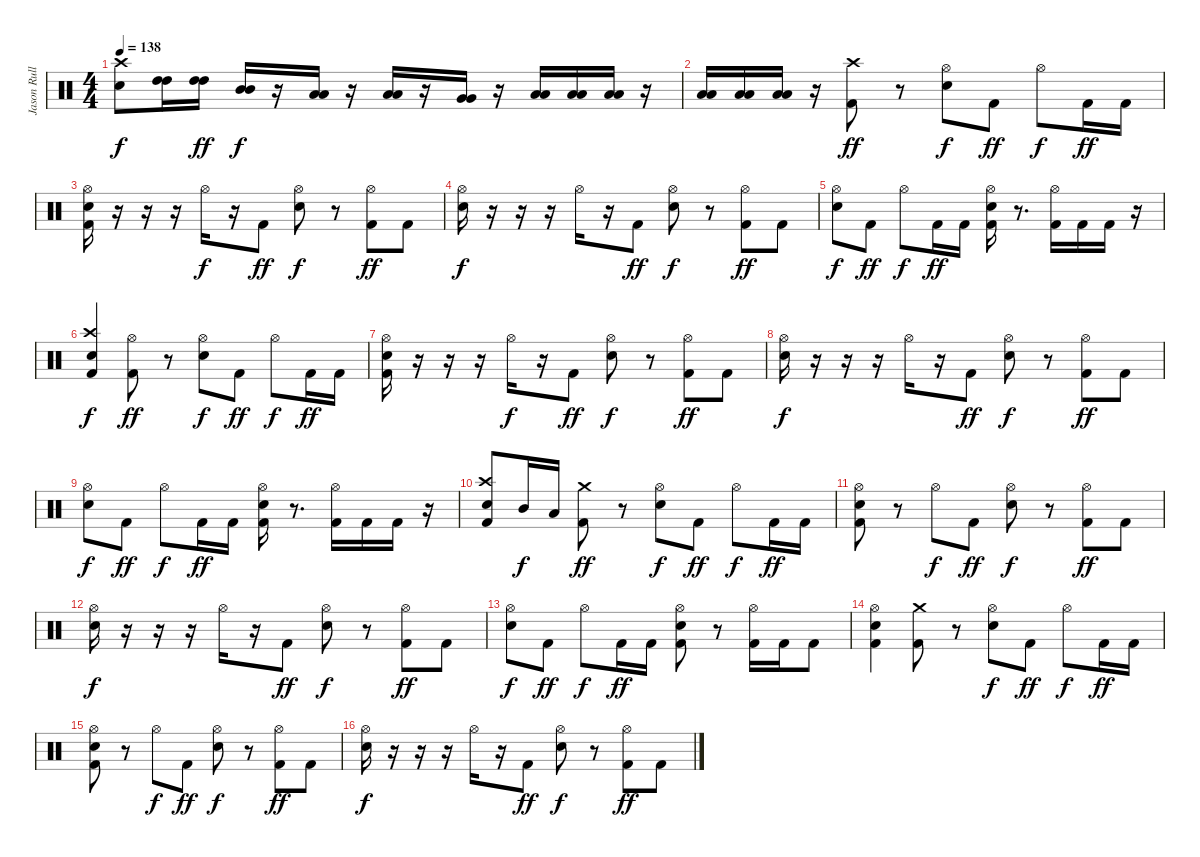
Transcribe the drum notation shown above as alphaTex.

\track ("Jason Rullo" "Jason Rull") {instrument percussion}
\staff {score}
\articulation defaults
\ts (4 4)
\tempo 138
\clef neutral
\ks c
("Electric Snare (hit)" "Crash high (hit)").8{dy f} ("High Tom (hit)" "High Tom (hit)").16 ("High Tom (hit)" "High Tom (hit)").16{dy ff} ("Mid Tom (hit)" "Mid Tom (hit)").16{dy f} r.16 ("Low Tom (hit)" "Low Tom (hit)").16 r.16 ("Low Tom (hit)" "Low Tom (hit)").16 r.16 ("Very Low Tom (hit)" "Very Low Tom (hit)").16 r.16 ("Low Tom (hit)" "Low Tom (hit)").16 ("Low Tom (hit)" "Low Tom (hit)").16 ("Low Tom (hit)" "Low Tom (hit)").16 r.16 |
("Low Tom (hit)" "Low Tom (hit)").16 ("Low Tom (hit)" "Low Tom (hit)").16 ("Low Tom (hit)" "Low Tom (hit)").16 r.16 ("Kick (hit) 2" "Crash high (hit)").8{dy ff} r.8 ("Electric Snare (hit)" "Hi-Hat (open)").8{dy f} "Kick (hit) 2".8{dy ff} "Hi-Hat (open)".8{dy f} "Kick (hit) 2".16{dy ff} "Kick (hit) 2".16 |
("Kick (hit) 2" "Electric Snare (hit)" "Hi-Hat (open)").16 r.16 r.16 r.16 "Hi-Hat (open)".16{dy f} r.16 "Kick (hit) 2".8{dy ff} ("Electric Snare (hit)" "Hi-Hat (open)").8{dy f} r.8 ("Kick (hit) 2" "Hi-Hat (open)").8{dy ff} "Kick (hit) 2".8 |
("Electric Snare (hit)" "Hi-Hat (open)").16{dy f} r.16 r.16 r.16 "Hi-Hat (open)".16 r.16 "Kick (hit) 2".8{dy ff} ("Electric Snare (hit)" "Hi-Hat (open)").8{dy f} r.8 ("Kick (hit) 2" "Hi-Hat (open)").8{dy ff} "Kick (hit) 2".8 |
("Electric Snare (hit)" "Hi-Hat (open)").8{dy f} "Kick (hit) 2".8{dy ff} "Hi-Hat (open)".8{dy f} "Kick (hit) 2".16{dy ff} "Kick (hit) 2".16 ("Kick (hit) 2" "Electric Snare (hit)" "Hi-Hat (open)").16 r.8{d} ("Kick (hit) 2" "Hi-Hat (open)").16 "Kick (hit) 2".16 "Kick (hit) 2".16 r.16 |
("Kick (hit) 2" "Electric Snare (hit)" "Crash high (hit)").4{dy f} ("Kick (hit) 2" "Hi-Hat (open)").8{dy ff} r.8 ("Electric Snare (hit)" "Hi-Hat (open)").8{dy f} "Kick (hit) 2".8{dy ff} "Hi-Hat (open)".8{dy f} "Kick (hit) 2".16{dy ff} "Kick (hit) 2".16 |
("Kick (hit) 2" "Electric Snare (hit)" "Hi-Hat (open)").16 r.16 r.16 r.16 "Hi-Hat (open)".16{dy f} r.16 "Kick (hit) 2".8{dy ff} ("Electric Snare (hit)" "Hi-Hat (open)").8{dy f} r.8 ("Kick (hit) 2" "Hi-Hat (open)").8{dy ff} "Kick (hit) 2".8 |
("Electric Snare (hit)" "Hi-Hat (open)").16{dy f} r.16 r.16 r.16 "Hi-Hat (open)".16 r.16 "Kick (hit) 2".8{dy ff} ("Electric Snare (hit)" "Hi-Hat (open)").8{dy f} r.8 ("Kick (hit) 2" "Hi-Hat (open)").8{dy ff} "Kick (hit) 2".8 |
("Electric Snare (hit)" "Hi-Hat (open)").8{dy f} "Kick (hit) 2".8{dy ff} "Hi-Hat (open)".8{dy f} "Kick (hit) 2".16{dy ff} "Kick (hit) 2".16 ("Kick (hit) 2" "Electric Snare (hit)" "Hi-Hat (open)").16 r.8{d} ("Kick (hit) 2" "Hi-Hat (open)").16 "Kick (hit) 2".16 "Kick (hit) 2".16 r.16 |
("Kick (hit) 2" "Electric Snare (hit)" "Crash high (hit)").8 "Mid Tom (hit)".16{dy f} "Low Tom (hit)".16 ("Kick (hit) 2" "Crash medium (hit)").8{dy ff} r.8 ("Electric Snare (hit)" "Hi-Hat (open)").8{dy f} "Kick (hit) 2".8{dy ff} "Hi-Hat (open)".8{dy f} "Kick (hit) 2".16{dy ff} "Kick (hit) 2".16 |
("Kick (hit) 2" "Electric Snare (hit)" "Hi-Hat (open)").8 r.8 "Hi-Hat (open)".8{dy f} "Kick (hit) 2".8{dy ff} ("Electric Snare (hit)" "Hi-Hat (open)").8{dy f} r.8 ("Kick (hit) 2" "Hi-Hat (open)").8{dy ff} "Kick (hit) 2".8 |
("Electric Snare (hit)" "Hi-Hat (open)").16{dy f} r.16 r.16 r.16 "Hi-Hat (open)".16 r.16 "Kick (hit) 2".8{dy ff} ("Electric Snare (hit)" "Hi-Hat (open)").8{dy f} r.8 ("Kick (hit) 2" "Hi-Hat (open)").8{dy ff} "Kick (hit) 2".8 |
("Electric Snare (hit)" "Hi-Hat (open)").8{dy f} "Kick (hit) 2".8{dy ff} "Hi-Hat (open)".8{dy f} "Kick (hit) 2".16{dy ff} "Kick (hit) 2".16 ("Kick (hit) 2" "Electric Snare (hit)" "Hi-Hat (open)").8 r.8 ("Kick (hit) 2" "Hi-Hat (open)").16 "Kick (hit) 2".16 "Kick (hit) 2".8 |
("Kick (hit) 2" "Electric Snare (hit)" "Hi-Hat (open)").4 ("Kick (hit) 2" "Crash medium (hit)").8 r.8 ("Electric Snare (hit)" "Hi-Hat (open)").8{dy f} "Kick (hit) 2".8{dy ff} "Hi-Hat (open)".8{dy f} "Kick (hit) 2".16{dy ff} "Kick (hit) 2".16 |
("Kick (hit) 2" "Electric Snare (hit)" "Hi-Hat (open)").8 r.8 "Hi-Hat (open)".8{dy f} "Kick (hit) 2".8{dy ff} ("Electric Snare (hit)" "Hi-Hat (open)").8{dy f} r.8 ("Kick (hit) 2" "Hi-Hat (open)").8{dy ff} "Kick (hit) 2".8 |
("Electric Snare (hit)" "Hi-Hat (open)").16{dy f} r.16 r.16 r.16 "Hi-Hat (open)".16 r.16 "Kick (hit) 2".8{dy ff} ("Electric Snare (hit)" "Hi-Hat (open)").8{dy f} r.8 ("Kick (hit) 2" "Hi-Hat (open)").8{dy ff} "Kick (hit) 2".8
